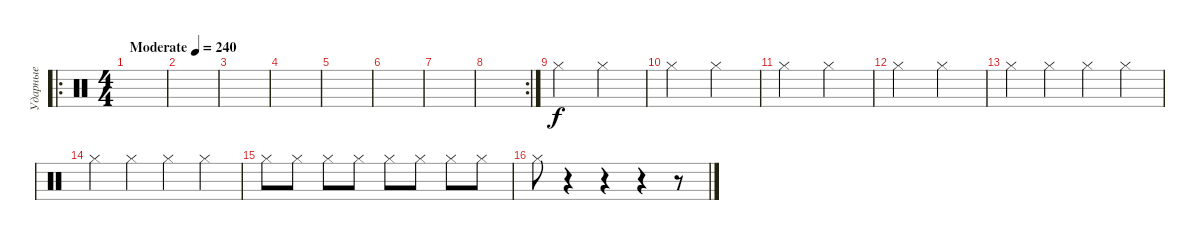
\track ("Ударные" "Ударные") {instrument percussion}
\staff {score}
\articulation defaults
\ro
\ts (4 4)
\tempo (240 "Moderate")
\clef neutral
\ks c
|
|
|
|
|
|
|
\rc 2
|
"Hi-Hat (closed)".2 "Hi-Hat (closed)".2 |
"Hi-Hat (closed)".2 "Hi-Hat (closed)".2 |
"Hi-Hat (closed)".2 "Hi-Hat (closed)".2 |
"Hi-Hat (closed)".2 "Hi-Hat (closed)".2 |
"Hi-Hat (closed)".4 "Hi-Hat (closed)".4 "Hi-Hat (closed)".4 "Hi-Hat (closed)".4 |
"Hi-Hat (closed)".4 "Hi-Hat (closed)".4 "Hi-Hat (closed)".4 "Hi-Hat (closed)".4 |
"Hi-Hat (closed)".8 "Hi-Hat (closed)".8 "Hi-Hat (closed)".8 "Hi-Hat (closed)".8 "Hi-Hat (closed)".8 "Hi-Hat (closed)".8 "Hi-Hat (closed)".8 "Hi-Hat (closed)".8 |
"Hi-Hat (closed)".8 r.4 r.4 r.4 r.8
